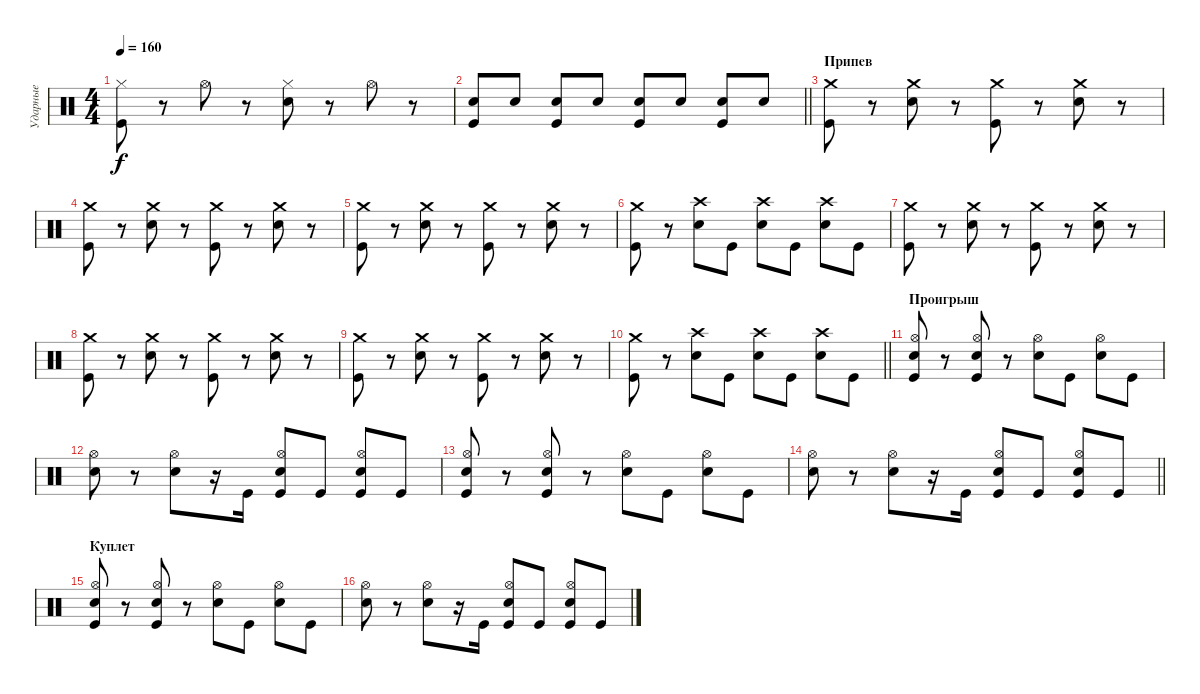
\track ("Ударные" "Ударные") {instrument percussion}
\staff {score}
\articulation defaults
\ts (4 4)
\tempo 160
\clef neutral
\ks c
("Hi-Hat (closed)" "Kick (hit)").8{dy f} r.8 "Hi-Hat (open)".8 r.8 ("Hi-Hat (closed)" "Electric Snare (hit)").8 r.8 "Hi-Hat (open)".8 r.8 |
\barLineRight lightlight
("Electric Snare (hit)" "Kick (hit)").8 "Electric Snare (hit)".8 ("Electric Snare (hit)" "Kick (hit)").8 "Electric Snare (hit)".8 ("Electric Snare (hit)" "Kick (hit)").8 "Electric Snare (hit)".8 ("Electric Snare (hit)" "Kick (hit)").8 "Electric Snare (hit)".8 |
\section ("" "Припев")
("Crash medium (hit)" "Kick (hit)").8 r.8 ("Crash medium (hit)" "Electric Snare (hit)").8 r.8 ("Crash medium (hit)" "Kick (hit)").8 r.8 ("Crash medium (hit)" "Electric Snare (hit)").8 r.8 |
("Crash medium (hit)" "Kick (hit)").8 r.8 ("Crash medium (hit)" "Electric Snare (hit)").8 r.8 ("Crash medium (hit)" "Kick (hit)").8 r.8 ("Crash medium (hit)" "Electric Snare (hit)").8 r.8 |
("Crash medium (hit)" "Kick (hit)").8 r.8 ("Crash medium (hit)" "Electric Snare (hit)").8 r.8 ("Crash medium (hit)" "Kick (hit)").8 r.8 ("Crash medium (hit)" "Electric Snare (hit)").8 r.8 |
("Crash medium (hit)" "Kick (hit)").8 r.8 ("Crash high (hit)" "Electric Snare (hit)").8 "Kick (hit)".8 ("Crash high (hit)" "Electric Snare (hit)").8 "Kick (hit)".8 ("Crash high (hit)" "Electric Snare (hit)").8 "Kick (hit)".8 |
("Crash medium (hit)" "Kick (hit)").8 r.8 ("Crash medium (hit)" "Electric Snare (hit)").8 r.8 ("Crash medium (hit)" "Kick (hit)").8 r.8 ("Crash medium (hit)" "Electric Snare (hit)").8 r.8 |
("Crash medium (hit)" "Kick (hit)").8 r.8 ("Crash medium (hit)" "Electric Snare (hit)").8 r.8 ("Crash medium (hit)" "Kick (hit)").8 r.8 ("Crash medium (hit)" "Electric Snare (hit)").8 r.8 |
("Crash medium (hit)" "Kick (hit)").8 r.8 ("Crash medium (hit)" "Electric Snare (hit)").8 r.8 ("Crash medium (hit)" "Kick (hit)").8 r.8 ("Crash medium (hit)" "Electric Snare (hit)").8 r.8 |
\barLineRight lightlight
("Crash medium (hit)" "Kick (hit)").8 r.8 ("Crash high (hit)" "Electric Snare (hit)").8 "Kick (hit)".8 ("Crash high (hit)" "Electric Snare (hit)").8 "Kick (hit)".8 ("Crash high (hit)" "Electric Snare (hit)").8 "Kick (hit)".8 |
\section ("" "Проигрыш")
("Hi-Hat (open)" "Electric Snare (hit)" "Kick (hit)").8 r.8 ("Hi-Hat (open)" "Electric Snare (hit)" "Kick (hit)").8 r.8 ("Hi-Hat (open)" "Electric Snare (hit)").8 "Kick (hit)".8 ("Hi-Hat (open)" "Electric Snare (hit)").8 "Kick (hit)".8 |
("Hi-Hat (open)" "Electric Snare (hit)").8 r.8 ("Hi-Hat (open)" "Electric Snare (hit)").8 r.16 "Kick (hit)".16 ("Hi-Hat (open)" "Electric Snare (hit)" "Kick (hit)").8 "Kick (hit)".8 ("Hi-Hat (open)" "Electric Snare (hit)" "Kick (hit)").8 "Kick (hit)".8 |
("Hi-Hat (open)" "Electric Snare (hit)" "Kick (hit)").8 r.8 ("Hi-Hat (open)" "Electric Snare (hit)" "Kick (hit)").8 r.8 ("Hi-Hat (open)" "Electric Snare (hit)").8 "Kick (hit)".8 ("Hi-Hat (open)" "Electric Snare (hit)").8 "Kick (hit)".8 |
\barLineRight lightlight
("Hi-Hat (open)" "Electric Snare (hit)").8 r.8 ("Hi-Hat (open)" "Electric Snare (hit)").8 r.16 "Kick (hit)".16 ("Hi-Hat (open)" "Electric Snare (hit)" "Kick (hit)").8 "Kick (hit)".8 ("Hi-Hat (open)" "Electric Snare (hit)" "Kick (hit)").8 "Kick (hit)".8 |
\section ("" "Куплет")
("Hi-Hat (open)" "Electric Snare (hit)" "Kick (hit)").8 r.8 ("Hi-Hat (open)" "Electric Snare (hit)" "Kick (hit)").8 r.8 ("Hi-Hat (open)" "Electric Snare (hit)").8 "Kick (hit)".8 ("Hi-Hat (open)" "Electric Snare (hit)").8 "Kick (hit)".8 |
("Hi-Hat (open)" "Electric Snare (hit)").8 r.8 ("Hi-Hat (open)" "Electric Snare (hit)").8 r.16 "Kick (hit)".16 ("Hi-Hat (open)" "Electric Snare (hit)" "Kick (hit)").8 "Kick (hit)".8 ("Hi-Hat (open)" "Electric Snare (hit)" "Kick (hit)").8 "Kick (hit)".8
